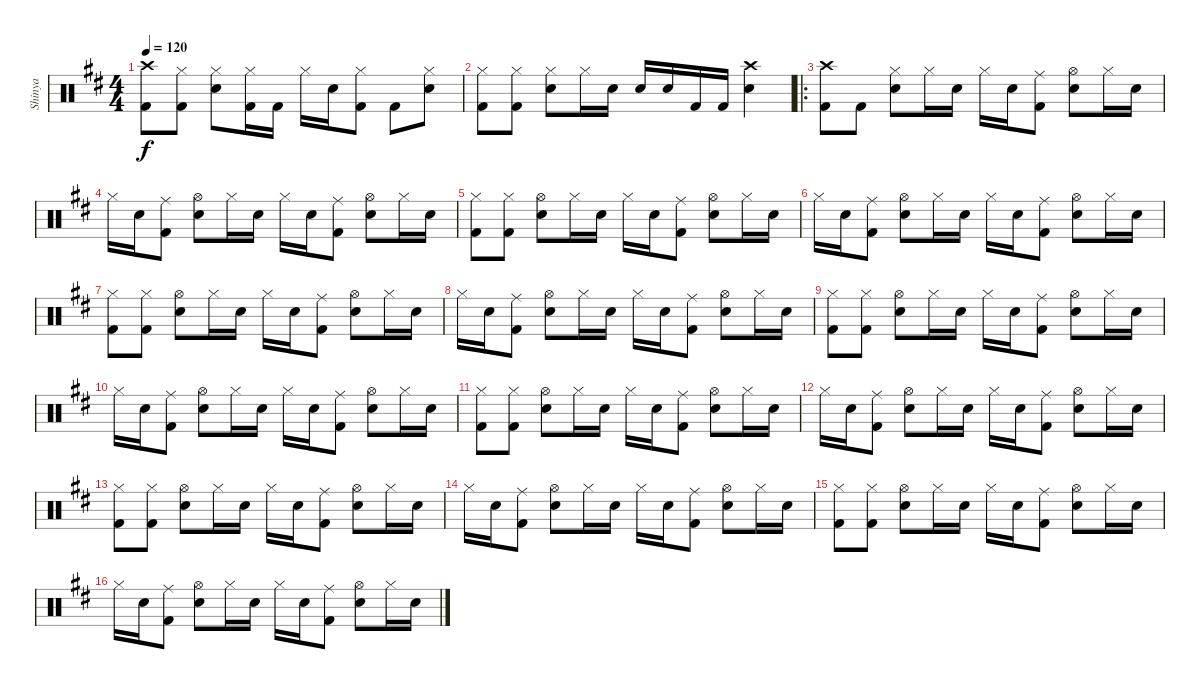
\track ("Shinya" "Shinya") {instrument percussion}
\staff {score}
\articulation defaults
\ts (4 4)
\tempo 120
\clef neutral
\ks bminor
("Crash high (hit)" "Kick (hit) 2").8{dy f} ("Hi-Hat (closed)" "Kick (hit) 2").8 ("Hi-Hat (closed)" "Snare (hit) 2").8 ("Hi-Hat (closed)" "Kick (hit) 2").16 "Kick (hit) 2".16 "Hi-Hat (closed)".16 "Snare (hit) 2".16 ("Kick (hit) 2" "Hi-Hat (closed)").8 "Kick (hit) 2".8 ("Hi-Hat (closed)" "Snare (hit) 2").8 |
("Hi-Hat (closed)" "Kick (hit) 2").8 ("Hi-Hat (closed)" "Kick (hit) 2").8 ("Hi-Hat (closed)" "Snare (hit) 2").8 "Hi-Hat (closed)".16 "Snare (hit) 2".16 "Snare (hit) 2".16 "Snare (hit) 2".16 "Kick (hit) 2".16 "Kick (hit) 2".16 ("Crash high (hit)" "Snare (hit) 2").4 |
\ro
("Kick (hit) 2" "Crash high (hit)").8 "Kick (hit) 2".8 ("Hi-Hat (closed)" "Snare (hit) 2").8 "Hi-Hat (closed)".16 "Snare (hit) 2".16 "Hi-Hat (closed)".16 "Snare (hit) 2".16 ("Ride (middle)" "Kick (hit) 2").8 ("Hi-Hat (open)" "Snare (hit) 2").8 "Hi-Hat (closed)".16 "Snare (hit) 2".16 |
"Hi-Hat (closed)".16 "Snare (hit) 2".16 ("Ride (middle)" "Kick (hit) 2").8 ("Hi-Hat (open)" "Snare (hit) 2").8 "Hi-Hat (closed)".16 "Snare (hit) 2".16 "Hi-Hat (closed)".16 "Snare (hit) 2".16 ("Ride (middle)" "Kick (hit) 2").8 ("Hi-Hat (open)" "Snare (hit) 2").8 "Hi-Hat (closed)".16 "Snare (hit) 2".16 |
("Kick (hit) 2" "Hi-Hat (closed)").8 ("Hi-Hat (closed)" "Kick (hit) 2").8 ("Hi-Hat (open)" "Snare (hit) 2").8 "Hi-Hat (closed)".16 "Snare (hit) 2".16 "Hi-Hat (closed)".16 "Snare (hit) 2".16 ("Ride (middle)" "Kick (hit) 2").8 ("Hi-Hat (open)" "Snare (hit) 2").8 "Hi-Hat (closed)".16 "Snare (hit) 2".16 |
"Hi-Hat (closed)".16 "Snare (hit) 2".16 ("Ride (middle)" "Kick (hit) 2").8 ("Hi-Hat (open)" "Snare (hit) 2").8 "Hi-Hat (closed)".16 "Snare (hit) 2".16 "Hi-Hat (closed)".16 "Snare (hit) 2".16 ("Ride (middle)" "Kick (hit) 2").8 ("Hi-Hat (open)" "Snare (hit) 2").8 "Hi-Hat (closed)".16 "Snare (hit) 2".16 |
("Kick (hit) 2" "Hi-Hat (closed)").8 ("Hi-Hat (closed)" "Kick (hit) 2").8 ("Hi-Hat (open)" "Snare (hit) 2").8 "Hi-Hat (closed)".16 "Snare (hit) 2".16 "Hi-Hat (closed)".16 "Snare (hit) 2".16 ("Ride (middle)" "Kick (hit) 2").8 ("Hi-Hat (open)" "Snare (hit) 2").8 "Hi-Hat (closed)".16 "Snare (hit) 2".16 |
"Hi-Hat (closed)".16 "Snare (hit) 2".16 ("Ride (middle)" "Kick (hit) 2").8 ("Hi-Hat (open)" "Snare (hit) 2").8 "Hi-Hat (closed)".16 "Snare (hit) 2".16 "Hi-Hat (closed)".16 "Snare (hit) 2".16 ("Ride (middle)" "Kick (hit) 2").8 ("Hi-Hat (open)" "Snare (hit) 2").8 "Hi-Hat (closed)".16 "Snare (hit) 2".16 |
("Kick (hit) 2" "Hi-Hat (closed)").8 ("Hi-Hat (closed)" "Kick (hit) 2").8 ("Hi-Hat (open)" "Snare (hit) 2").8 "Hi-Hat (closed)".16 "Snare (hit) 2".16 "Hi-Hat (closed)".16 "Snare (hit) 2".16 ("Ride (middle)" "Kick (hit) 2").8 ("Hi-Hat (open)" "Snare (hit) 2").8 "Hi-Hat (closed)".16 "Snare (hit) 2".16 |
"Hi-Hat (closed)".16 "Snare (hit) 2".16 ("Ride (middle)" "Kick (hit) 2").8 ("Hi-Hat (open)" "Snare (hit) 2").8 "Hi-Hat (closed)".16 "Snare (hit) 2".16 "Hi-Hat (closed)".16 "Snare (hit) 2".16 ("Ride (middle)" "Kick (hit) 2").8 ("Hi-Hat (open)" "Snare (hit) 2").8 "Hi-Hat (closed)".16 "Snare (hit) 2".16 |
("Kick (hit) 2" "Hi-Hat (closed)").8 ("Hi-Hat (closed)" "Kick (hit) 2").8 ("Hi-Hat (open)" "Snare (hit) 2").8 "Hi-Hat (closed)".16 "Snare (hit) 2".16 "Hi-Hat (closed)".16 "Snare (hit) 2".16 ("Ride (middle)" "Kick (hit) 2").8 ("Hi-Hat (open)" "Snare (hit) 2").8 "Hi-Hat (closed)".16 "Snare (hit) 2".16 |
"Hi-Hat (closed)".16 "Snare (hit) 2".16 ("Ride (middle)" "Kick (hit) 2").8 ("Hi-Hat (open)" "Snare (hit) 2").8 "Hi-Hat (closed)".16 "Snare (hit) 2".16 "Hi-Hat (closed)".16 "Snare (hit) 2".16 ("Ride (middle)" "Kick (hit) 2").8 ("Hi-Hat (open)" "Snare (hit) 2").8 "Hi-Hat (closed)".16 "Snare (hit) 2".16 |
("Kick (hit) 2" "Hi-Hat (closed)").8 ("Hi-Hat (closed)" "Kick (hit) 2").8 ("Hi-Hat (open)" "Snare (hit) 2").8 "Hi-Hat (closed)".16 "Snare (hit) 2".16 "Hi-Hat (closed)".16 "Snare (hit) 2".16 ("Ride (middle)" "Kick (hit) 2").8 ("Hi-Hat (open)" "Snare (hit) 2").8 "Hi-Hat (closed)".16 "Snare (hit) 2".16 |
"Hi-Hat (closed)".16 "Snare (hit) 2".16 ("Ride (middle)" "Kick (hit) 2").8 ("Hi-Hat (open)" "Snare (hit) 2").8 "Hi-Hat (closed)".16 "Snare (hit) 2".16 "Hi-Hat (closed)".16 "Snare (hit) 2".16 ("Ride (middle)" "Kick (hit) 2").8 ("Hi-Hat (open)" "Snare (hit) 2").8 "Hi-Hat (closed)".16 "Snare (hit) 2".16 |
("Kick (hit) 2" "Hi-Hat (closed)").8 ("Hi-Hat (closed)" "Kick (hit) 2").8 ("Hi-Hat (open)" "Snare (hit) 2").8 "Hi-Hat (closed)".16 "Snare (hit) 2".16 "Hi-Hat (closed)".16 "Snare (hit) 2".16 ("Ride (middle)" "Kick (hit) 2").8 ("Hi-Hat (open)" "Snare (hit) 2").8 "Hi-Hat (closed)".16 "Snare (hit) 2".16 |
"Hi-Hat (closed)".16 "Snare (hit) 2".16 ("Ride (middle)" "Kick (hit) 2").8 ("Hi-Hat (open)" "Snare (hit) 2").8 "Hi-Hat (closed)".16 "Snare (hit) 2".16 "Hi-Hat (closed)".16 "Snare (hit) 2".16 ("Ride (middle)" "Kick (hit) 2").8 ("Hi-Hat (open)" "Snare (hit) 2").8 "Hi-Hat (closed)".16 "Snare (hit) 2".16
